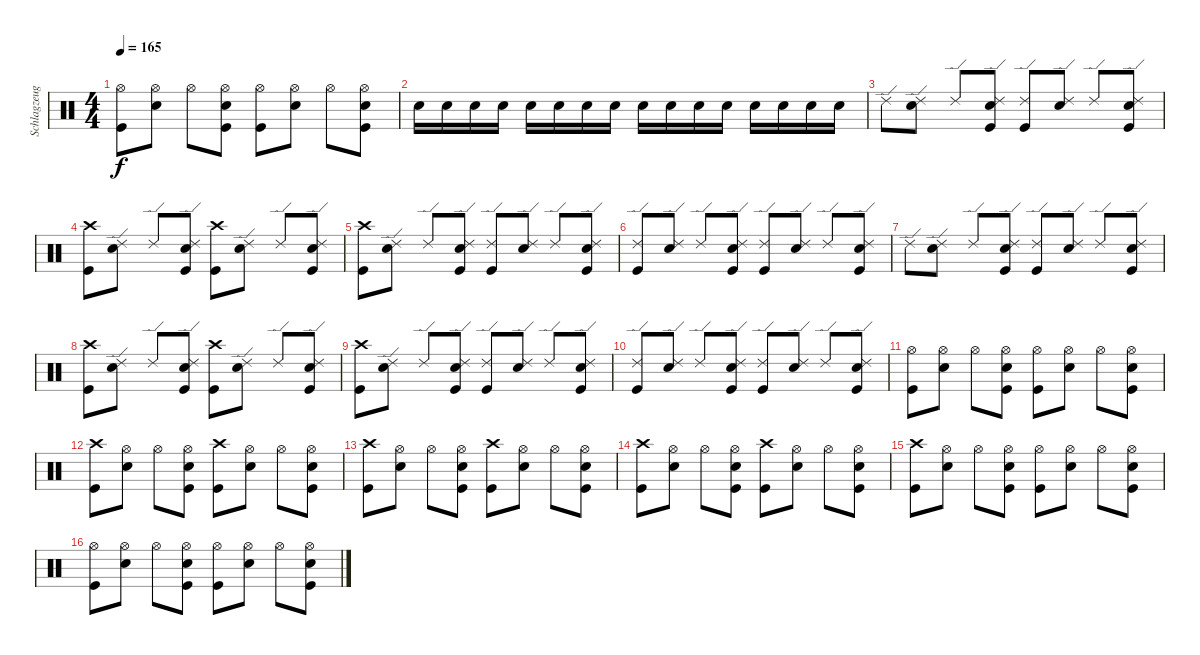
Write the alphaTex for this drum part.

\track ("Schlagzeug" "Schlagzeug") {instrument percussion}
\staff {score}
\articulation defaults
\ts (4 4)
\tempo 165
\clef neutral
\ks c
("Hi-Hat (open)" "Kick (hit)").8{dy f} ("Hi-Hat (open)" "Snare (hit) 2").8 "Hi-Hat (open)".8 ("Hi-Hat (open)" "Snare (hit) 2" "Kick (hit)").8 ("Hi-Hat (open)" "Kick (hit)").8 ("Hi-Hat (open)" "Snare (hit) 2").8 "Hi-Hat (open)".8 ("Hi-Hat (open)" "Snare (hit) 2" "Kick (hit)").8 |
"Snare (hit) 2".16 "Snare (hit) 2".16 "Snare (hit) 2".16 "Snare (hit) 2".16 "Snare (hit) 2".16 "Snare (hit) 2".16 "Snare (hit) 2".16 "Snare (hit) 2".16 "Snare (hit) 2".16 "Snare (hit) 2".16 "Snare (hit) 2".16 "Snare (hit) 2".16 "Snare (hit) 2".16 "Snare (hit) 2".16 "Snare (hit) 2".16 "Snare (hit) 2".16 |
"Ride (edge) 2".8 ("Ride (edge) 2" "Snare (hit) 2").8 "Ride (edge) 2".8 ("Ride (edge) 2" "Snare (hit) 2" "Kick (hit)").8 ("Ride (edge) 2" "Kick (hit)").8 ("Ride (edge) 2" "Snare (hit) 2").8 "Ride (edge) 2".8 ("Ride (edge) 2" "Snare (hit) 2" "Kick (hit)").8 |
("Crash high (hit)" "Kick (hit)").8 ("Ride (edge) 2" "Snare (hit) 2").8 "Ride (edge) 2".8 ("Ride (edge) 2" "Snare (hit) 2" "Kick (hit)").8 ("Crash high (hit)" "Kick (hit)").8 ("Ride (edge) 2" "Snare (hit) 2").8 "Ride (edge) 2".8 ("Ride (edge) 2" "Snare (hit) 2" "Kick (hit)").8 |
("Crash high (hit)" "Kick (hit)").8 ("Ride (edge) 2" "Snare (hit) 2").8 "Ride (edge) 2".8 ("Ride (edge) 2" "Snare (hit) 2" "Kick (hit)").8 ("Ride (edge) 2" "Kick (hit)").8 ("Ride (edge) 2" "Snare (hit) 2").8 "Ride (edge) 2".8 ("Ride (edge) 2" "Snare (hit) 2" "Kick (hit)").8 |
("Ride (edge) 2" "Kick (hit)").8 ("Ride (edge) 2" "Snare (hit) 2").8 "Ride (edge) 2".8 ("Ride (edge) 2" "Snare (hit) 2" "Kick (hit)").8 ("Ride (edge) 2" "Kick (hit)").8 ("Ride (edge) 2" "Snare (hit) 2").8 "Ride (edge) 2".8 ("Ride (edge) 2" "Snare (hit) 2" "Kick (hit)").8 |
"Ride (edge) 2".8 ("Ride (edge) 2" "Snare (hit) 2").8 "Ride (edge) 2".8 ("Ride (edge) 2" "Snare (hit) 2" "Kick (hit)").8 ("Ride (edge) 2" "Kick (hit)").8 ("Ride (edge) 2" "Snare (hit) 2").8 "Ride (edge) 2".8 ("Ride (edge) 2" "Snare (hit) 2" "Kick (hit)").8 |
("Crash high (hit)" "Kick (hit)").8 ("Ride (edge) 2" "Snare (hit) 2").8 "Ride (edge) 2".8 ("Ride (edge) 2" "Snare (hit) 2" "Kick (hit)").8 ("Crash high (hit)" "Kick (hit)").8 ("Ride (edge) 2" "Snare (hit) 2").8 "Ride (edge) 2".8 ("Ride (edge) 2" "Snare (hit) 2" "Kick (hit)").8 |
("Crash high (hit)" "Kick (hit)").8 ("Ride (edge) 2" "Snare (hit) 2").8 "Ride (edge) 2".8 ("Ride (edge) 2" "Snare (hit) 2" "Kick (hit)").8 ("Ride (edge) 2" "Kick (hit)").8 ("Ride (edge) 2" "Snare (hit) 2").8 "Ride (edge) 2".8 ("Ride (edge) 2" "Snare (hit) 2" "Kick (hit)").8 |
("Ride (edge) 2" "Kick (hit)").8 ("Ride (edge) 2" "Snare (hit) 2").8 "Ride (edge) 2".8 ("Ride (edge) 2" "Snare (hit) 2" "Kick (hit)").8 ("Ride (edge) 2" "Kick (hit)").8 ("Ride (edge) 2" "Snare (hit) 2").8 "Ride (edge) 2".8 ("Ride (edge) 2" "Snare (hit) 2" "Kick (hit)").8 |
("Hi-Hat (open)" "Kick (hit)").8 ("Hi-Hat (open)" "Snare (hit) 2").8 "Hi-Hat (open)".8 ("Hi-Hat (open)" "Snare (hit) 2" "Kick (hit)").8 ("Hi-Hat (open)" "Kick (hit)").8 ("Hi-Hat (open)" "Snare (hit) 2").8 "Hi-Hat (open)".8 ("Hi-Hat (open)" "Snare (hit) 2" "Kick (hit)").8 |
("Crash high (hit)" "Kick (hit)").8 ("Hi-Hat (open)" "Snare (hit) 2").8 "Hi-Hat (open)".8 ("Hi-Hat (open)" "Snare (hit) 2" "Kick (hit)").8 ("Crash high (hit)" "Kick (hit)").8 ("Hi-Hat (open)" "Snare (hit) 2").8 "Hi-Hat (open)".8 ("Hi-Hat (open)" "Snare (hit) 2" "Kick (hit)").8 |
("Crash high (hit)" "Kick (hit)").8 ("Hi-Hat (open)" "Snare (hit) 2").8 "Hi-Hat (open)".8 ("Hi-Hat (open)" "Snare (hit) 2" "Kick (hit)").8 ("Crash high (hit)" "Kick (hit)").8 ("Hi-Hat (open)" "Snare (hit) 2").8 "Hi-Hat (open)".8 ("Hi-Hat (open)" "Snare (hit) 2" "Kick (hit)").8 |
("Crash high (hit)" "Kick (hit)").8 ("Hi-Hat (open)" "Snare (hit) 2").8 "Hi-Hat (open)".8 ("Hi-Hat (open)" "Snare (hit) 2" "Kick (hit)").8 ("Crash high (hit)" "Kick (hit)").8 ("Hi-Hat (open)" "Snare (hit) 2").8 "Hi-Hat (open)".8 ("Hi-Hat (open)" "Snare (hit) 2" "Kick (hit)").8 |
("Crash high (hit)" "Kick (hit)").8 ("Hi-Hat (open)" "Snare (hit) 2").8 "Hi-Hat (open)".8 ("Hi-Hat (open)" "Snare (hit) 2" "Kick (hit)").8 ("Hi-Hat (open)" "Kick (hit)").8 ("Hi-Hat (open)" "Snare (hit) 2").8 "Hi-Hat (open)".8 ("Hi-Hat (open)" "Snare (hit) 2" "Kick (hit)").8 |
("Hi-Hat (open)" "Kick (hit)").8 ("Hi-Hat (open)" "Snare (hit) 2").8 "Hi-Hat (open)".8 ("Hi-Hat (open)" "Snare (hit) 2" "Kick (hit)").8 ("Hi-Hat (open)" "Kick (hit)").8 ("Hi-Hat (open)" "Snare (hit) 2").8 "Hi-Hat (open)".8 ("Hi-Hat (open)" "Snare (hit) 2" "Kick (hit)").8
